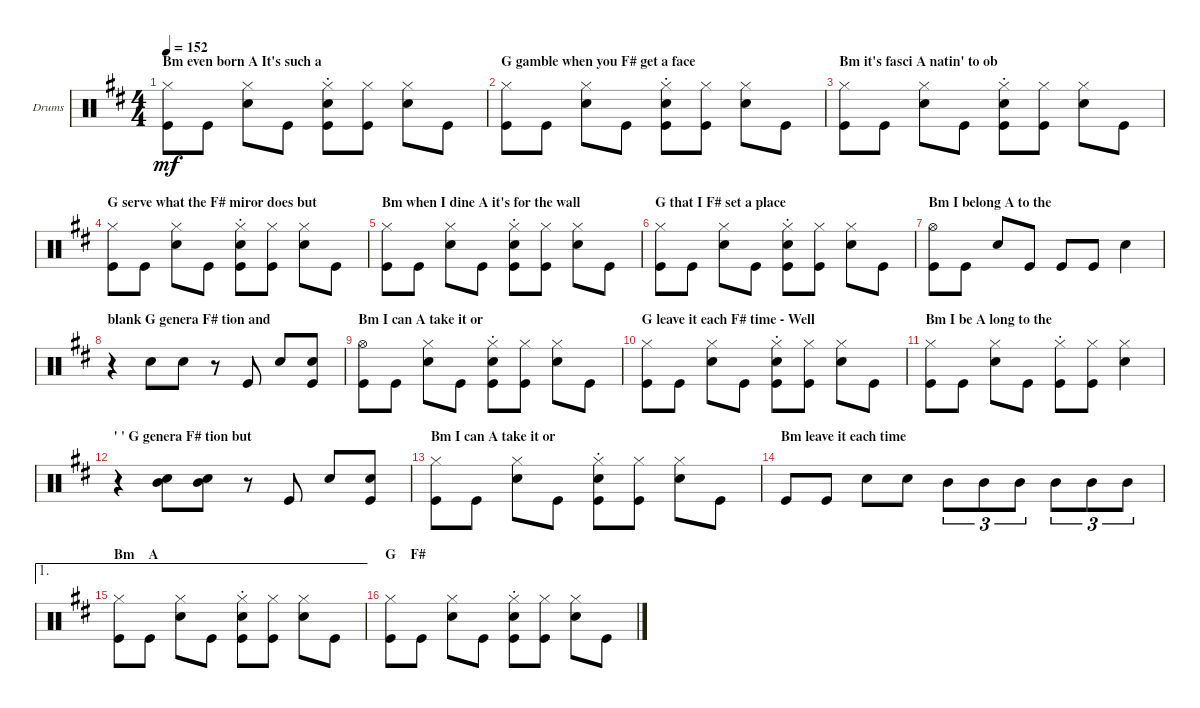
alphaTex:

\bracketExtendMode groupsimilarinstruments
\firstSystemTrackNameOrientation horizontal
\otherSystemsTrackNameOrientation horizontal
\track ("Drums - Marc Bell" "Drums") {instrument percussion}
\staff {score}
\articulation defaults
\ts (4 4)
\section ("" "Bm even born A It's such a ")
\tempo 152
\clef neutral
\ks d
("Kick (hit)" "Hi-Hat (closed)").8{dy mf} "Kick (hit)".8 ("Snare (hit) 2" "Hi-Hat (closed)").8 "Kick (hit)".8 ("Snare (hit) 2" "Kick (hit)" "Hi-Hat (closed)"{st}).8 ("Kick (hit)" "Hi-Hat (closed)").8 ("Snare (hit) 2" "Hi-Hat (closed)").8 "Kick (hit)".8 |
\section ("" "G gamble when you F# get a face")
("Kick (hit)" "Hi-Hat (closed)").8 "Kick (hit)".8 ("Snare (hit) 2" "Hi-Hat (closed)").8 "Kick (hit)".8 ("Snare (hit) 2" "Kick (hit)" "Hi-Hat (closed)"{st}).8 ("Kick (hit)" "Hi-Hat (closed)").8 ("Snare (hit) 2" "Hi-Hat (closed)").8 "Kick (hit)".8 |
\section ("" "Bm it's fasci A natin' to ob")
("Kick (hit)" "Hi-Hat (closed)").8 "Kick (hit)".8 ("Snare (hit) 2" "Hi-Hat (closed)").8 "Kick (hit)".8 ("Snare (hit) 2" "Kick (hit)" "Hi-Hat (closed)"{st}).8 ("Kick (hit)" "Hi-Hat (closed)").8 ("Snare (hit) 2" "Hi-Hat (closed)").8 "Kick (hit)".8 |
\section ("" "G serve what the F# miror does but")
("Kick (hit)" "Hi-Hat (closed)").8 "Kick (hit)".8 ("Snare (hit) 2" "Hi-Hat (closed)").8 "Kick (hit)".8 ("Snare (hit) 2" "Kick (hit)" "Hi-Hat (closed)"{st}).8 ("Kick (hit)" "Hi-Hat (closed)").8 ("Snare (hit) 2" "Hi-Hat (closed)").8 "Kick (hit)".8 |
\section ("" "Bm when I dine A it's for the wall")
("Kick (hit)" "Hi-Hat (closed)").8 "Kick (hit)".8 ("Snare (hit) 2" "Hi-Hat (closed)").8 "Kick (hit)".8 ("Snare (hit) 2" "Kick (hit)" "Hi-Hat (closed)"{st}).8 ("Kick (hit)" "Hi-Hat (closed)").8 ("Snare (hit) 2" "Hi-Hat (closed)").8 "Kick (hit)".8 |
\section ("" "G that I F# set a place")
("Kick (hit)" "Hi-Hat (closed)").8 "Kick (hit)".8 ("Snare (hit) 2" "Hi-Hat (closed)").8 "Kick (hit)".8 ("Snare (hit) 2" "Kick (hit)" "Hi-Hat (closed)"{st}).8 ("Kick (hit)" "Hi-Hat (closed)").8 ("Snare (hit) 2" "Hi-Hat (closed)").8 "Kick (hit)".8 |
\section ("" "Bm I belong A to the")
("Kick (hit)" "Hi-Hat (open)").8 "Kick (hit)".8 "Snare (hit) 2".8 "Kick (hit)".8 "Kick (hit)".8 "Kick (hit)".8 "Snare (hit) 2".4 |
\section ("" "blank G genera F# tion and")
r.4 "Snare (hit) 2".8 "Snare (hit) 2".8 r.8 "Kick (hit)".8 "Snare (hit) 2".8 ("Snare (hit) 2" "Kick (hit)").8 |
\section ("" "Bm I can A take it or")
("Kick (hit)" "Hi-Hat (open)").8 "Kick (hit)".8 ("Snare (hit) 2" "Hi-Hat (closed)").8 "Kick (hit)".8 ("Snare (hit) 2" "Kick (hit)" "Hi-Hat (closed)"{st}).8 ("Kick (hit)" "Hi-Hat (closed)").8 ("Snare (hit) 2" "Hi-Hat (closed)").8 "Kick (hit)".8 |
\section ("" "G leave it each F# time - Well")
("Kick (hit)" "Hi-Hat (closed)").8 "Kick (hit)".8 ("Snare (hit) 2" "Hi-Hat (closed)").8 "Kick (hit)".8 ("Snare (hit) 2" "Kick (hit)" "Hi-Hat (closed)"{st}).8 ("Kick (hit)" "Hi-Hat (closed)").8 ("Snare (hit) 2" "Hi-Hat (closed)").8 "Kick (hit)".8 |
\section ("" "Bm I be A long to the")
("Kick (hit)" "Hi-Hat (closed)").8 "Kick (hit)".8 ("Snare (hit) 2" "Hi-Hat (closed)").8 "Kick (hit)".8 ("Kick (hit)" "Hi-Hat (closed)"{st}).8 ("Kick (hit)" "Hi-Hat (closed)").8 ("Snare (hit) 2" "Hi-Hat (closed)").4 |
\section ("" "' ' G genera F# tion but")
r.4 ("Snare (hit) 2" "Mid Tom (hit)").8 ("Snare (hit) 2" "Mid Tom (hit)").8 r.8 "Kick (hit)".8 "Snare (hit) 2".8 ("Snare (hit) 2" "Kick (hit)").8 |
\section ("" "Bm I can A take it or")
("Kick (hit)" "Hi-Hat (closed)").8 "Kick (hit)".8 ("Snare (hit) 2" "Hi-Hat (closed)").8 "Kick (hit)".8 ("Snare (hit) 2" "Kick (hit)" "Hi-Hat (closed)"{st}).8 ("Kick (hit)" "Hi-Hat (closed)").8 ("Snare (hit) 2" "Hi-Hat (closed)").8 "Kick (hit)".8 |
\section ("" "Bm leave it each time")
"Kick (hit)".8 "Kick (hit)".8 "Snare (hit) 2".8 "Snare (hit) 2".8 "Mid Tom (hit)".8{tu (3 2)} "Mid Tom (hit)".8{tu (3 2)} "Mid Tom (hit)".8{tu (3 2)} "Mid Tom (hit)".8{tu (3 2)} "Mid Tom (hit)".8{tu (3 2)} "Mid Tom (hit)".8{tu (3 2)} |
\ae 1
\section ("" "Bm    A")
("Kick (hit)" "Hi-Hat (closed)").8 "Kick (hit)".8 ("Snare (hit) 2" "Hi-Hat (closed)").8 "Kick (hit)".8 ("Snare (hit) 2" "Kick (hit)" "Hi-Hat (closed)"{st}).8 ("Kick (hit)" "Hi-Hat (closed)").8 ("Snare (hit) 2" "Hi-Hat (closed)").8 "Kick (hit)".8 |
\section ("" "G    F#")
("Kick (hit)" "Hi-Hat (closed)").8 "Kick (hit)".8 ("Snare (hit) 2" "Hi-Hat (closed)").8 "Kick (hit)".8 ("Snare (hit) 2" "Kick (hit)" "Hi-Hat (closed)"{st}).8 ("Kick (hit)" "Hi-Hat (closed)").8 ("Snare (hit) 2" "Hi-Hat (closed)").8 "Kick (hit)".8
